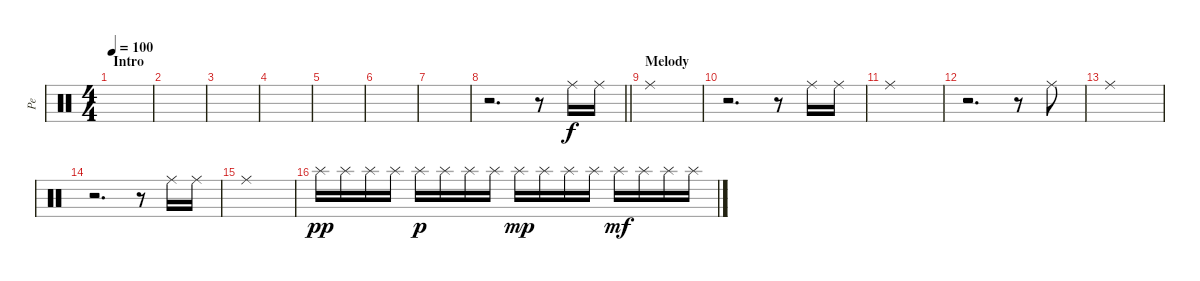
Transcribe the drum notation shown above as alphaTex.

\track ("Pe" "Pe") {instrument percussion}
\staff {score}
\articulation defaults
\ts (4 4)
\section ("" "Intro")
\tempo 100
\clef neutral
\ks c
|
|
|
|
|
|
|
\barLineRight lightlight
r.2{d volume 13} r.8 "Ride (middle)".16 "Ride (middle)".16 |
\section ("" "Melody")
"Ride (middle)".1 |
r.2{d} r.8 "Ride (middle)".16 "Ride (middle)".16 |
"Ride (middle)".1 |
r.2{d} r.8 "Ride (middle)".8 |
"Ride (middle)".1 |
r.2{d} r.8 "Ride (middle)".16 "Ride (middle)".16 |
"Ride (middle)".1 |
"Splash (hit)".16{dy pp} "Splash (hit)".16 "Splash (hit)".16 "Splash (hit)".16 "Splash (hit)".16{dy p} "Splash (hit)".16 "Splash (hit)".16 "Splash (hit)".16 "Splash (hit)".16{dy mp} "Splash (hit)".16 "Splash (hit)".16 "Splash (hit)".16 "Splash (hit)".16{dy mf} "Splash (hit)".16 "Splash (hit)".16 "Splash (hit)".16
